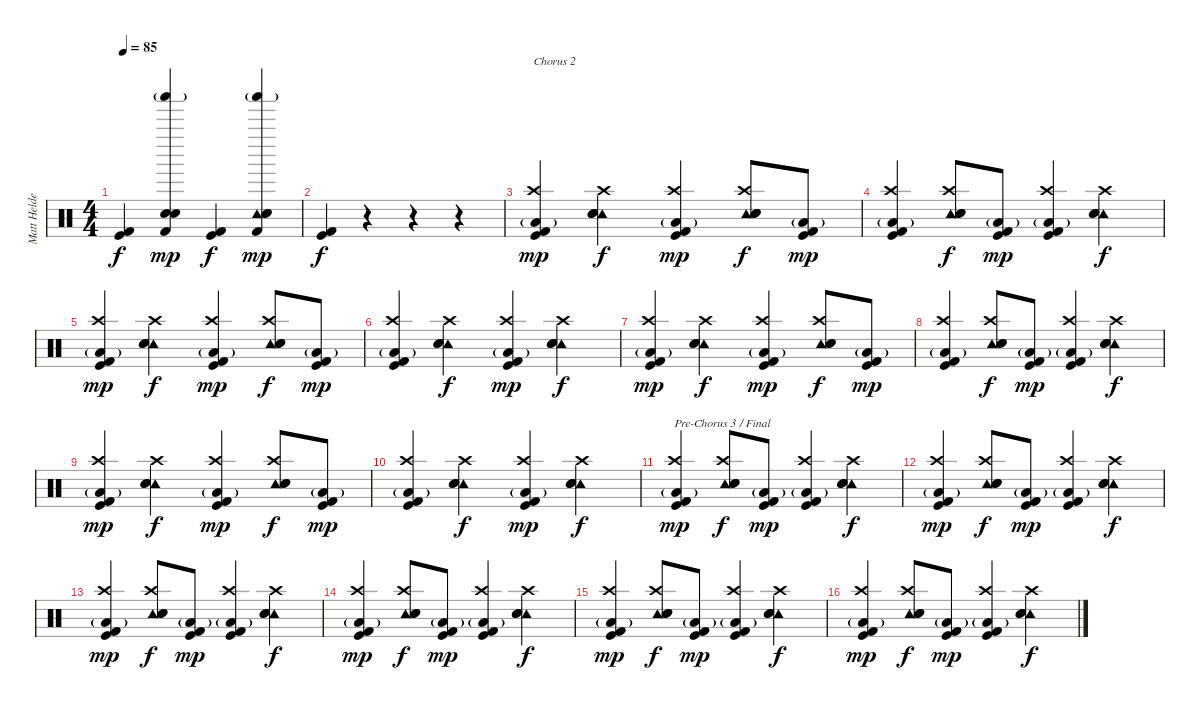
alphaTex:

\track ("Matt Helders" "Matt Helde") {instrument percussion}
\staff {score}
\articulation defaults
\ts (4 4)
\tempo 85
\clef neutral
\ks c
("Kick (hit)" "Kick (hit) 2").4{dy f} ("Hand Clap (hit)" "Shaker (hit)"{g} "Electric Snare (hit)" "Kick (hit) 2").4{dy mp} ("Kick (hit)" "Kick (hit) 2").4{dy f} ("Tambourine (hit)" "Hand Clap (hit)" "Shaker (hit)"{g} "Electric Snare (hit)" "Kick (hit) 2").4{dy mp} |
("Kick (hit)" "Kick (hit) 2").4{dy f} r.4 r.4 r.4 |
("Crash high (hit)" "Low Floor Tom (hit)"{g} "Kick (hit) 2" "Kick (hit)").4{txt "Chorus 2" dy mp} ("Crash high (hit)" "Tambourine (hit)" "Hand Clap (hit)" "Snare (hit) 2").4{dy f} ("Crash high (hit)" "Low Floor Tom (hit)"{g} "Kick (hit) 2" "Kick (hit)").4{dy mp} ("Crash high (hit)" "Tambourine (hit)" "Hand Clap (hit)" "Snare (hit) 2").8{dy f} ("Low Floor Tom (hit)"{g} "Kick (hit) 2" "Kick (hit)").8{dy mp} |
("Crash high (hit)" "Low Floor Tom (hit)"{g} "Kick (hit) 2" "Kick (hit)").4 ("Crash high (hit)" "Tambourine (hit)" "Hand Clap (hit)" "Snare (hit) 2").8{dy f} ("Low Floor Tom (hit)"{g} "Kick (hit) 2" "Kick (hit)").8{dy mp} ("Crash high (hit)" "Low Floor Tom (hit)"{g} "Kick (hit) 2" "Kick (hit)").4 ("Crash high (hit)" "Tambourine (hit)" "Hand Clap (hit)" "Snare (hit) 2").4{dy f} |
("Crash high (hit)" "Low Floor Tom (hit)"{g} "Kick (hit) 2" "Kick (hit)").4{dy mp} ("Crash high (hit)" "Tambourine (hit)" "Hand Clap (hit)" "Snare (hit) 2").4{dy f} ("Crash high (hit)" "Low Floor Tom (hit)"{g} "Kick (hit) 2" "Kick (hit)").4{dy mp} ("Crash high (hit)" "Tambourine (hit)" "Hand Clap (hit)" "Snare (hit) 2").8{dy f} ("Low Floor Tom (hit)"{g} "Kick (hit) 2" "Kick (hit)").8{dy mp} |
("Crash high (hit)" "Low Floor Tom (hit)"{g} "Kick (hit) 2" "Kick (hit)").4 ("Crash high (hit)" "Tambourine (hit)" "Hand Clap (hit)" "Snare (hit) 2").4{dy f} ("Crash high (hit)" "Low Floor Tom (hit)"{g} "Kick (hit) 2" "Kick (hit)").4{dy mp} ("Crash high (hit)" "Tambourine (hit)" "Hand Clap (hit)" "Snare (hit) 2").4{dy f} |
("Crash high (hit)" "Low Floor Tom (hit)"{g} "Kick (hit) 2" "Kick (hit)").4{dy mp} ("Crash high (hit)" "Tambourine (hit)" "Hand Clap (hit)" "Snare (hit) 2").4{dy f} ("Crash high (hit)" "Low Floor Tom (hit)"{g} "Kick (hit) 2" "Kick (hit)").4{dy mp} ("Crash high (hit)" "Tambourine (hit)" "Hand Clap (hit)" "Snare (hit) 2").8{dy f} ("Low Floor Tom (hit)"{g} "Kick (hit) 2" "Kick (hit)").8{dy mp} |
("Crash high (hit)" "Low Floor Tom (hit)"{g} "Kick (hit) 2" "Kick (hit)").4 ("Crash high (hit)" "Tambourine (hit)" "Hand Clap (hit)" "Snare (hit) 2").8{dy f} ("Low Floor Tom (hit)"{g} "Kick (hit) 2" "Kick (hit)").8{dy mp} ("Crash high (hit)" "Low Floor Tom (hit)"{g} "Kick (hit) 2" "Kick (hit)").4 ("Crash high (hit)" "Tambourine (hit)" "Hand Clap (hit)" "Snare (hit) 2").4{dy f} |
("Crash high (hit)" "Low Floor Tom (hit)"{g} "Kick (hit) 2" "Kick (hit)").4{dy mp} ("Crash high (hit)" "Tambourine (hit)" "Hand Clap (hit)" "Snare (hit) 2").4{dy f} ("Crash high (hit)" "Low Floor Tom (hit)"{g} "Kick (hit) 2" "Kick (hit)").4{dy mp} ("Crash high (hit)" "Tambourine (hit)" "Hand Clap (hit)" "Snare (hit) 2").8{dy f} ("Low Floor Tom (hit)"{g} "Kick (hit) 2" "Kick (hit)").8{dy mp} |
("Crash high (hit)" "Low Floor Tom (hit)"{g} "Kick (hit) 2" "Kick (hit)").4 ("Crash high (hit)" "Tambourine (hit)" "Hand Clap (hit)" "Snare (hit) 2").4{dy f} ("Crash high (hit)" "Low Floor Tom (hit)"{g} "Kick (hit) 2" "Kick (hit)").4{dy mp} ("Crash high (hit)" "Tambourine (hit)" "Hand Clap (hit)" "Snare (hit) 2").4{dy f} |
("Crash high (hit)" "Low Floor Tom (hit)"{g} "Kick (hit) 2" "Kick (hit)").4{txt "Pre-Chorus 3 / Final" dy mp} ("Crash high (hit)" "Tambourine (hit)" "Hand Clap (hit)" "Snare (hit) 2").8{dy f} ("Low Floor Tom (hit)"{g} "Kick (hit) 2" "Kick (hit)").8{dy mp} ("Crash high (hit)" "Low Floor Tom (hit)"{g} "Kick (hit) 2" "Kick (hit)").4 ("Crash high (hit)" "Tambourine (hit)" "Hand Clap (hit)" "Snare (hit) 2").4{dy f} |
("Crash high (hit)" "Low Floor Tom (hit)"{g} "Kick (hit) 2" "Kick (hit)").4{dy mp} ("Crash high (hit)" "Tambourine (hit)" "Hand Clap (hit)" "Snare (hit) 2").8{dy f} ("Low Floor Tom (hit)"{g} "Kick (hit) 2" "Kick (hit)").8{dy mp} ("Crash high (hit)" "Low Floor Tom (hit)"{g} "Kick (hit) 2" "Kick (hit)").4 ("Crash high (hit)" "Tambourine (hit)" "Hand Clap (hit)" "Snare (hit) 2").4{dy f} |
("Crash high (hit)" "Low Floor Tom (hit)"{g} "Kick (hit) 2" "Kick (hit)").4{dy mp} ("Crash high (hit)" "Tambourine (hit)" "Hand Clap (hit)" "Snare (hit) 2").8{dy f} ("Low Floor Tom (hit)"{g} "Kick (hit) 2" "Kick (hit)").8{dy mp} ("Crash high (hit)" "Low Floor Tom (hit)"{g} "Kick (hit) 2" "Kick (hit)").4 ("Crash high (hit)" "Tambourine (hit)" "Hand Clap (hit)" "Snare (hit) 2").4{dy f} |
("Crash high (hit)" "Low Floor Tom (hit)"{g} "Kick (hit) 2" "Kick (hit)").4{dy mp} ("Crash high (hit)" "Tambourine (hit)" "Hand Clap (hit)" "Snare (hit) 2").8{dy f} ("Low Floor Tom (hit)"{g} "Kick (hit) 2" "Kick (hit)").8{dy mp} ("Crash high (hit)" "Low Floor Tom (hit)"{g} "Kick (hit) 2" "Kick (hit)").4 ("Crash high (hit)" "Tambourine (hit)" "Hand Clap (hit)" "Snare (hit) 2").4{dy f} |
("Crash high (hit)" "Low Floor Tom (hit)"{g} "Kick (hit) 2" "Kick (hit)").4{dy mp} ("Crash high (hit)" "Tambourine (hit)" "Hand Clap (hit)" "Snare (hit) 2").8{dy f} ("Low Floor Tom (hit)"{g} "Kick (hit) 2" "Kick (hit)").8{dy mp} ("Crash high (hit)" "Low Floor Tom (hit)"{g} "Kick (hit) 2" "Kick (hit)").4 ("Crash high (hit)" "Tambourine (hit)" "Hand Clap (hit)" "Snare (hit) 2").4{dy f} |
("Crash high (hit)" "Low Floor Tom (hit)"{g} "Kick (hit) 2" "Kick (hit)").4{dy mp} ("Crash high (hit)" "Tambourine (hit)" "Hand Clap (hit)" "Snare (hit) 2").8{dy f} ("Low Floor Tom (hit)"{g} "Kick (hit) 2" "Kick (hit)").8{dy mp} ("Crash high (hit)" "Low Floor Tom (hit)"{g} "Kick (hit) 2" "Kick (hit)").4 ("Crash high (hit)" "Tambourine (hit)" "Hand Clap (hit)" "Snare (hit) 2").4{dy f}
